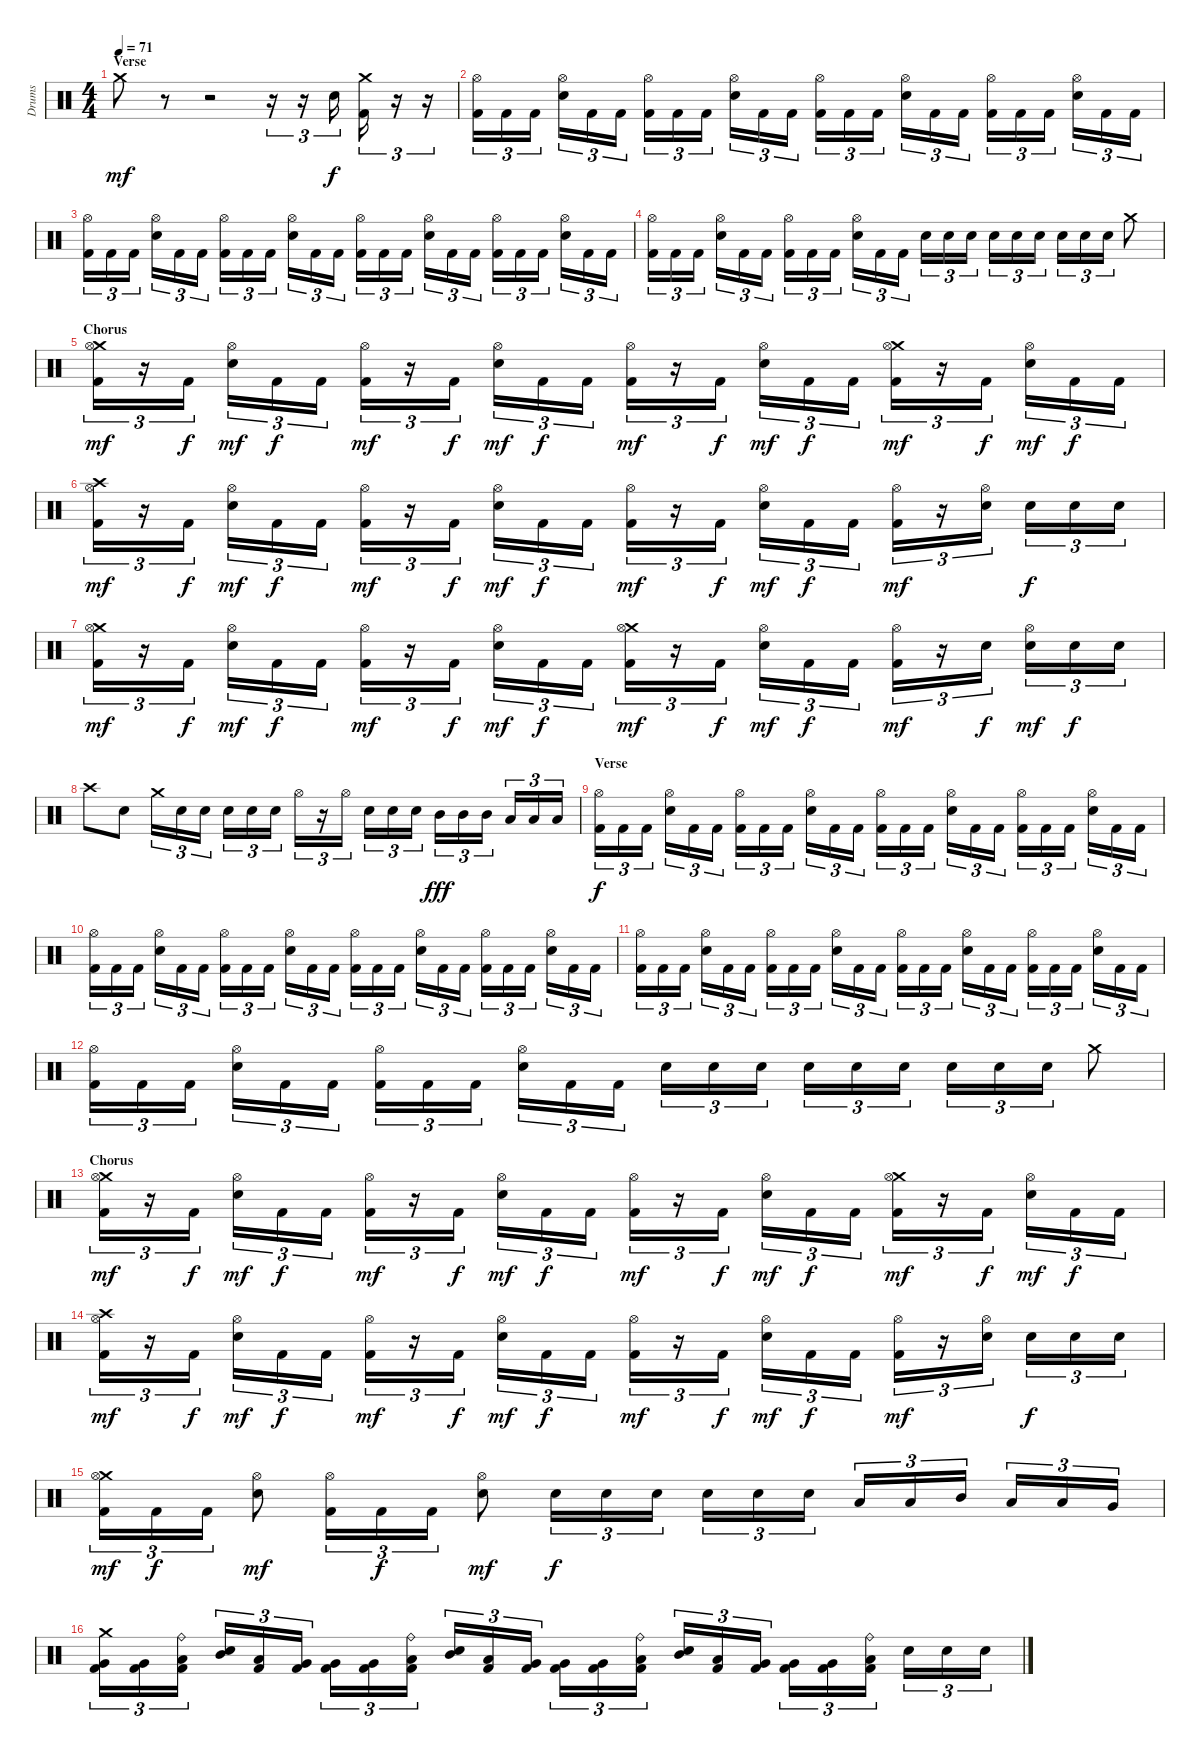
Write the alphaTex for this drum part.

\track ("Drums" "Drums") {instrument percussion}
\staff {score}
\articulation defaults
\ts (4 4)
\section ("" "Verse")
\tempo 71
\clef neutral
\ks c "Crash medium (hit)".8{dy mf}
r.8 r.2 r.16{tu (3 2)} r.16{tu (3 2)} "Electric Snare (hit)".16{tu (3 2) dy f} ("Crash medium (hit)" "Kick (hit) 2").16{tu (3 2)} r.16{tu (3 2)} r.16{tu (3 2)} |
("Hi-Hat (open)" "Kick (hit) 2").16{tu (3 2)} "Kick (hit) 2".16{tu (3 2)} "Kick (hit) 2".16{tu (3 2)} ("Hi-Hat (open)" "Electric Snare (hit)").16{tu (3 2)} "Kick (hit) 2".16{tu (3 2)} "Kick (hit) 2".16{tu (3 2)} ("Hi-Hat (open)" "Kick (hit) 2").16{tu (3 2)} "Kick (hit) 2".16{tu (3 2)} "Kick (hit) 2".16{tu (3 2)} ("Hi-Hat (open)" "Electric Snare (hit)").16{tu (3 2)} "Kick (hit) 2".16{tu (3 2)} "Kick (hit) 2".16{tu (3 2)} ("Hi-Hat (open)" "Kick (hit) 2").16{tu (3 2)} "Kick (hit) 2".16{tu (3 2)} "Kick (hit) 2".16{tu (3 2)} ("Hi-Hat (open)" "Electric Snare (hit)").16{tu (3 2)} "Kick (hit) 2".16{tu (3 2)} "Kick (hit) 2".16{tu (3 2)} ("Hi-Hat (open)" "Kick (hit) 2").16{tu (3 2)} "Kick (hit) 2".16{tu (3 2)} "Kick (hit) 2".16{tu (3 2)} ("Hi-Hat (open)" "Electric Snare (hit)").16{tu (3 2)} "Kick (hit) 2".16{tu (3 2)} "Kick (hit) 2".16{tu (3 2)} |
("Hi-Hat (open)" "Kick (hit) 2").16{tu (3 2)} "Kick (hit) 2".16{tu (3 2)} "Kick (hit) 2".16{tu (3 2)} ("Hi-Hat (open)" "Electric Snare (hit)").16{tu (3 2)} "Kick (hit) 2".16{tu (3 2)} "Kick (hit) 2".16{tu (3 2)} ("Hi-Hat (open)" "Kick (hit) 2").16{tu (3 2)} "Kick (hit) 2".16{tu (3 2)} "Kick (hit) 2".16{tu (3 2)} ("Hi-Hat (open)" "Electric Snare (hit)").16{tu (3 2)} "Kick (hit) 2".16{tu (3 2)} "Kick (hit) 2".16{tu (3 2)} ("Hi-Hat (open)" "Kick (hit) 2").16{tu (3 2)} "Kick (hit) 2".16{tu (3 2)} "Kick (hit) 2".16{tu (3 2)} ("Hi-Hat (open)" "Electric Snare (hit)").16{tu (3 2)} "Kick (hit) 2".16{tu (3 2)} "Kick (hit) 2".16{tu (3 2)} ("Hi-Hat (open)" "Kick (hit) 2").16{tu (3 2)} "Kick (hit) 2".16{tu (3 2)} "Kick (hit) 2".16{tu (3 2)} ("Hi-Hat (open)" "Electric Snare (hit)").16{tu (3 2)} "Kick (hit) 2".16{tu (3 2)} "Kick (hit) 2".16{tu (3 2)} |
("Hi-Hat (open)" "Kick (hit) 2").16{tu (3 2)} "Kick (hit) 2".16{tu (3 2)} "Kick (hit) 2".16{tu (3 2)} ("Hi-Hat (open)" "Electric Snare (hit)").16{tu (3 2)} "Kick (hit) 2".16{tu (3 2)} "Kick (hit) 2".16{tu (3 2)} ("Hi-Hat (open)" "Kick (hit) 2").16{tu (3 2)} "Kick (hit) 2".16{tu (3 2)} "Kick (hit) 2".16{tu (3 2)} ("Hi-Hat (open)" "Electric Snare (hit)").16{tu (3 2)} "Kick (hit) 2".16{tu (3 2)} "Kick (hit) 2".16{tu (3 2)} "Electric Snare (hit)".16{tu (3 2)} "Electric Snare (hit)".16{tu (3 2)} "Electric Snare (hit)".16{tu (3 2)} "Electric Snare (hit)".16{tu (3 2)} "Electric Snare (hit)".16{tu (3 2)} "Electric Snare (hit)".16{tu (3 2)} "Electric Snare (hit)".16{tu (3 2)} "Electric Snare (hit)".16{tu (3 2)} "Electric Snare (hit)".16{tu (3 2)} "Crash medium (hit)".8 |
\section ("" "Chorus")
("Crash medium (hit)" "Hi-Hat (open)" "Kick (hit) 2").16{tu (3 2) dy mf} r.16{tu (3 2)} "Kick (hit) 2".16{tu (3 2) dy f} ("Hi-Hat (open)" "Electric Snare (hit)").16{tu (3 2) dy mf} "Kick (hit) 2".16{tu (3 2) dy f} "Kick (hit) 2".16{tu (3 2)} ("Hi-Hat (open)" "Kick (hit) 2").16{tu (3 2) dy mf} r.16{tu (3 2)} "Kick (hit) 2".16{tu (3 2) dy f} ("Hi-Hat (open)" "Electric Snare (hit)").16{tu (3 2) dy mf} "Kick (hit) 2".16{tu (3 2) dy f} "Kick (hit) 2".16{tu (3 2)} ("Hi-Hat (open)" "Kick (hit) 2").16{tu (3 2) dy mf} r.16{tu (3 2)} "Kick (hit) 2".16{tu (3 2) dy f} ("Hi-Hat (open)" "Electric Snare (hit)").16{tu (3 2) dy mf} "Kick (hit) 2".16{tu (3 2) dy f} "Kick (hit) 2".16{tu (3 2)} ("Crash medium (hit)" "Hi-Hat (open)" "Kick (hit) 2").16{tu (3 2) dy mf} r.16{tu (3 2)} "Kick (hit) 2".16{tu (3 2) dy f} ("Hi-Hat (open)" "Electric Snare (hit)").16{tu (3 2) dy mf} "Kick (hit) 2".16{tu (3 2) dy f} "Kick (hit) 2".16{tu (3 2)} |
("Crash high (hit)" "Hi-Hat (open)" "Kick (hit) 2").16{tu (3 2) dy mf} r.16{tu (3 2)} "Kick (hit) 2".16{tu (3 2) dy f} ("Hi-Hat (open)" "Electric Snare (hit)").16{tu (3 2) dy mf} "Kick (hit) 2".16{tu (3 2) dy f} "Kick (hit) 2".16{tu (3 2)} ("Hi-Hat (open)" "Kick (hit) 2").16{tu (3 2) dy mf} r.16{tu (3 2)} "Kick (hit) 2".16{tu (3 2) dy f} ("Hi-Hat (open)" "Electric Snare (hit)").16{tu (3 2) dy mf} "Kick (hit) 2".16{tu (3 2) dy f} "Kick (hit) 2".16{tu (3 2)} ("Hi-Hat (open)" "Kick (hit) 2").16{tu (3 2) dy mf} r.16{tu (3 2)} "Kick (hit) 2".16{tu (3 2) dy f} ("Hi-Hat (open)" "Electric Snare (hit)").16{tu (3 2) dy mf} "Kick (hit) 2".16{tu (3 2) dy f} "Kick (hit) 2".16{tu (3 2)} ("Hi-Hat (open)" "Kick (hit) 2").16{tu (3 2) dy mf} r.16{tu (3 2)} ("Hi-Hat (open)" "Electric Snare (hit)").16{tu (3 2)} "Electric Snare (hit)".16{tu (3 2) dy f} "Electric Snare (hit)".16{tu (3 2)} "Electric Snare (hit)".16{tu (3 2)} |
("Crash medium (hit)" "Hi-Hat (open)" "Kick (hit) 2").16{tu (3 2) dy mf} r.16{tu (3 2)} "Kick (hit) 2".16{tu (3 2) dy f} ("Hi-Hat (open)" "Electric Snare (hit)").16{tu (3 2) dy mf} "Kick (hit) 2".16{tu (3 2) dy f} "Kick (hit) 2".16{tu (3 2)} ("Hi-Hat (open)" "Kick (hit) 2").16{tu (3 2) dy mf} r.16{tu (3 2)} "Kick (hit) 2".16{tu (3 2) dy f} ("Hi-Hat (open)" "Electric Snare (hit)").16{tu (3 2) dy mf} "Kick (hit) 2".16{tu (3 2) dy f} "Kick (hit) 2".16{tu (3 2)} ("Crash medium (hit)" "Hi-Hat (open)" "Kick (hit) 2").16{tu (3 2) dy mf} r.16{tu (3 2)} "Kick (hit) 2".16{tu (3 2) dy f} ("Hi-Hat (open)" "Electric Snare (hit)").16{tu (3 2) dy mf} "Kick (hit) 2".16{tu (3 2) dy f} "Kick (hit) 2".16{tu (3 2)} ("Hi-Hat (open)" "Kick (hit) 2").16{tu (3 2) dy mf} r.16{tu (3 2)} "Electric Snare (hit)".16{tu (3 2) dy f} ("Hi-Hat (open)" "Electric Snare (hit)").16{tu (3 2) dy mf} "Electric Snare (hit)".16{tu (3 2) dy f} "Electric Snare (hit)".16{tu (3 2)} |
"Crash high (hit)".8 "Electric Snare (hit)".8 "Crash medium (hit)".16{tu (3 2)} "Electric Snare (hit)".16{tu (3 2)} "Electric Snare (hit)".16{tu (3 2)} "Electric Snare (hit)".16{tu (3 2)} "Electric Snare (hit)".16{tu (3 2)} "Electric Snare (hit)".16{tu (3 2)} "Hi-Hat (open)".16{tu (3 2)} r.16{tu (3 2)} "Hi-Hat (open)".16{tu (3 2)} "Electric Snare (hit)".16{tu (3 2)} "Electric Snare (hit)".16{tu (3 2)} "Electric Snare (hit)".16{tu (3 2)} "Mid Tom (hit)".16{tu (3 2) dy fff} "Mid Tom (hit)".16{tu (3 2)} "Mid Tom (hit)".16{tu (3 2)} "Low Tom (hit)".16{tu (3 2)} "Low Tom (hit)".16{tu (3 2)} "Low Tom (hit)".16{tu (3 2)} |
\section ("" "Verse")
("Hi-Hat (open)" "Kick (hit) 2").16{tu (3 2) dy f} "Kick (hit) 2".16{tu (3 2)} "Kick (hit) 2".16{tu (3 2)} ("Hi-Hat (open)" "Electric Snare (hit)").16{tu (3 2)} "Kick (hit) 2".16{tu (3 2)} "Kick (hit) 2".16{tu (3 2)} ("Hi-Hat (open)" "Kick (hit) 2").16{tu (3 2)} "Kick (hit) 2".16{tu (3 2)} "Kick (hit) 2".16{tu (3 2)} ("Hi-Hat (open)" "Electric Snare (hit)").16{tu (3 2)} "Kick (hit) 2".16{tu (3 2)} "Kick (hit) 2".16{tu (3 2)} ("Hi-Hat (open)" "Kick (hit) 2").16{tu (3 2)} "Kick (hit) 2".16{tu (3 2)} "Kick (hit) 2".16{tu (3 2)} ("Hi-Hat (open)" "Electric Snare (hit)").16{tu (3 2)} "Kick (hit) 2".16{tu (3 2)} "Kick (hit) 2".16{tu (3 2)} ("Hi-Hat (open)" "Kick (hit) 2").16{tu (3 2)} "Kick (hit) 2".16{tu (3 2)} "Kick (hit) 2".16{tu (3 2)} ("Hi-Hat (open)" "Electric Snare (hit)").16{tu (3 2)} "Kick (hit) 2".16{tu (3 2)} "Kick (hit) 2".16{tu (3 2)} |
("Hi-Hat (open)" "Kick (hit) 2").16{tu (3 2)} "Kick (hit) 2".16{tu (3 2)} "Kick (hit) 2".16{tu (3 2)} ("Hi-Hat (open)" "Electric Snare (hit)").16{tu (3 2)} "Kick (hit) 2".16{tu (3 2)} "Kick (hit) 2".16{tu (3 2)} ("Hi-Hat (open)" "Kick (hit) 2").16{tu (3 2)} "Kick (hit) 2".16{tu (3 2)} "Kick (hit) 2".16{tu (3 2)} ("Hi-Hat (open)" "Electric Snare (hit)").16{tu (3 2)} "Kick (hit) 2".16{tu (3 2)} "Kick (hit) 2".16{tu (3 2)} ("Hi-Hat (open)" "Kick (hit) 2").16{tu (3 2)} "Kick (hit) 2".16{tu (3 2)} "Kick (hit) 2".16{tu (3 2)} ("Hi-Hat (open)" "Electric Snare (hit)").16{tu (3 2)} "Kick (hit) 2".16{tu (3 2)} "Kick (hit) 2".16{tu (3 2)} ("Hi-Hat (open)" "Kick (hit) 2").16{tu (3 2)} "Kick (hit) 2".16{tu (3 2)} "Kick (hit) 2".16{tu (3 2)} ("Hi-Hat (open)" "Electric Snare (hit)").16{tu (3 2)} "Kick (hit) 2".16{tu (3 2)} "Kick (hit) 2".16{tu (3 2)} |
("Hi-Hat (open)" "Kick (hit) 2").16{tu (3 2)} "Kick (hit) 2".16{tu (3 2)} "Kick (hit) 2".16{tu (3 2)} ("Hi-Hat (open)" "Electric Snare (hit)").16{tu (3 2)} "Kick (hit) 2".16{tu (3 2)} "Kick (hit) 2".16{tu (3 2)} ("Hi-Hat (open)" "Kick (hit) 2").16{tu (3 2)} "Kick (hit) 2".16{tu (3 2)} "Kick (hit) 2".16{tu (3 2)} ("Hi-Hat (open)" "Electric Snare (hit)").16{tu (3 2)} "Kick (hit) 2".16{tu (3 2)} "Kick (hit) 2".16{tu (3 2)} ("Hi-Hat (open)" "Kick (hit) 2").16{tu (3 2)} "Kick (hit) 2".16{tu (3 2)} "Kick (hit) 2".16{tu (3 2)} ("Hi-Hat (open)" "Electric Snare (hit)").16{tu (3 2)} "Kick (hit) 2".16{tu (3 2)} "Kick (hit) 2".16{tu (3 2)} ("Hi-Hat (open)" "Kick (hit) 2").16{tu (3 2)} "Kick (hit) 2".16{tu (3 2)} "Kick (hit) 2".16{tu (3 2)} ("Hi-Hat (open)" "Electric Snare (hit)").16{tu (3 2)} "Kick (hit) 2".16{tu (3 2)} "Kick (hit) 2".16{tu (3 2)} |
("Hi-Hat (open)" "Kick (hit) 2").16{tu (3 2)} "Kick (hit) 2".16{tu (3 2)} "Kick (hit) 2".16{tu (3 2)} ("Hi-Hat (open)" "Electric Snare (hit)").16{tu (3 2)} "Kick (hit) 2".16{tu (3 2)} "Kick (hit) 2".16{tu (3 2)} ("Hi-Hat (open)" "Kick (hit) 2").16{tu (3 2)} "Kick (hit) 2".16{tu (3 2)} "Kick (hit) 2".16{tu (3 2)} ("Hi-Hat (open)" "Electric Snare (hit)").16{tu (3 2)} "Kick (hit) 2".16{tu (3 2)} "Kick (hit) 2".16{tu (3 2)} "Electric Snare (hit)".16{tu (3 2)} "Electric Snare (hit)".16{tu (3 2)} "Electric Snare (hit)".16{tu (3 2)} "Electric Snare (hit)".16{tu (3 2)} "Electric Snare (hit)".16{tu (3 2)} "Electric Snare (hit)".16{tu (3 2)} "Electric Snare (hit)".16{tu (3 2)} "Electric Snare (hit)".16{tu (3 2)} "Electric Snare (hit)".16{tu (3 2)} "Crash medium (hit)".8 |
\section ("" "Chorus")
("Crash medium (hit)" "Hi-Hat (open)" "Kick (hit) 2").16{tu (3 2) dy mf} r.16{tu (3 2)} "Kick (hit) 2".16{tu (3 2) dy f} ("Hi-Hat (open)" "Electric Snare (hit)").16{tu (3 2) dy mf} "Kick (hit) 2".16{tu (3 2) dy f} "Kick (hit) 2".16{tu (3 2)} ("Hi-Hat (open)" "Kick (hit) 2").16{tu (3 2) dy mf} r.16{tu (3 2)} "Kick (hit) 2".16{tu (3 2) dy f} ("Hi-Hat (open)" "Electric Snare (hit)").16{tu (3 2) dy mf} "Kick (hit) 2".16{tu (3 2) dy f} "Kick (hit) 2".16{tu (3 2)} ("Hi-Hat (open)" "Kick (hit) 2").16{tu (3 2) dy mf} r.16{tu (3 2)} "Kick (hit) 2".16{tu (3 2) dy f} ("Hi-Hat (open)" "Electric Snare (hit)").16{tu (3 2) dy mf} "Kick (hit) 2".16{tu (3 2) dy f} "Kick (hit) 2".16{tu (3 2)} ("Crash medium (hit)" "Hi-Hat (open)" "Kick (hit) 2").16{tu (3 2) dy mf} r.16{tu (3 2)} "Kick (hit) 2".16{tu (3 2) dy f} ("Hi-Hat (open)" "Electric Snare (hit)").16{tu (3 2) dy mf} "Kick (hit) 2".16{tu (3 2) dy f} "Kick (hit) 2".16{tu (3 2)} |
("Crash high (hit)" "Hi-Hat (open)" "Kick (hit) 2").16{tu (3 2) dy mf} r.16{tu (3 2)} "Kick (hit) 2".16{tu (3 2) dy f} ("Hi-Hat (open)" "Electric Snare (hit)").16{tu (3 2) dy mf} "Kick (hit) 2".16{tu (3 2) dy f} "Kick (hit) 2".16{tu (3 2)} ("Hi-Hat (open)" "Kick (hit) 2").16{tu (3 2) dy mf} r.16{tu (3 2)} "Kick (hit) 2".16{tu (3 2) dy f} ("Hi-Hat (open)" "Electric Snare (hit)").16{tu (3 2) dy mf} "Kick (hit) 2".16{tu (3 2) dy f} "Kick (hit) 2".16{tu (3 2)} ("Hi-Hat (open)" "Kick (hit) 2").16{tu (3 2) dy mf} r.16{tu (3 2)} "Kick (hit) 2".16{tu (3 2) dy f} ("Hi-Hat (open)" "Electric Snare (hit)").16{tu (3 2) dy mf} "Kick (hit) 2".16{tu (3 2) dy f} "Kick (hit) 2".16{tu (3 2)} ("Hi-Hat (open)" "Kick (hit) 2").16{tu (3 2) dy mf} r.16{tu (3 2)} ("Hi-Hat (open)" "Electric Snare (hit)").16{tu (3 2)} "Electric Snare (hit)".16{tu (3 2) dy f} "Electric Snare (hit)".16{tu (3 2)} "Electric Snare (hit)".16{tu (3 2)} |
("Crash medium (hit)" "Hi-Hat (open)" "Kick (hit) 2").16{tu (3 2) dy mf} "Kick (hit) 2".16{tu (3 2) dy f} "Kick (hit) 2".16{tu (3 2)} ("Hi-Hat (open)" "Electric Snare (hit)").8{dy mf} ("Hi-Hat (open)" "Kick (hit) 2").16{tu (3 2)} "Kick (hit) 2".16{tu (3 2) dy f} "Kick (hit) 2".16{tu (3 2)} ("Hi-Hat (open)" "Electric Snare (hit)").8{dy mf} "Electric Snare (hit)".16{tu (3 2) dy f} "Electric Snare (hit)".16{tu (3 2)} "Electric Snare (hit)".16{tu (3 2)} "Electric Snare (hit)".16{tu (3 2)} "Electric Snare (hit)".16{tu (3 2)} "Electric Snare (hit)".16{tu (3 2)} "Low Tom (hit)".16{tu (3 2)} "Low Tom (hit)".16{tu (3 2)} "Mid Tom (hit)".16{tu (3 2)} "Low Tom (hit)".16{tu (3 2)} "Low Tom (hit)".16{tu (3 2)} "Very Low Tom (hit)".16{tu (3 2)} |
("Crash medium (hit)" "Very Low Tom (hit)" "Kick (hit) 2").16{tu (3 2)} ("Very Low Tom (hit)" "Kick (hit) 2").16{tu (3 2)} ("Ride (bell)" "Low Tom (hit)" "Kick (hit) 2").16{tu (3 2)} ("Mid Tom (hit)" "Electric Snare (hit)").16{tu (3 2)} ("Low Tom (hit)" "Kick (hit) 2").16{tu (3 2)} ("Very Low Tom (hit)" "Kick (hit) 2").16{tu (3 2)} ("Very Low Tom (hit)" "Kick (hit) 2").16{tu (3 2)} ("Very Low Tom (hit)" "Kick (hit) 2").16{tu (3 2)} ("Ride (bell)" "Low Tom (hit)" "Kick (hit) 2").16{tu (3 2)} ("Mid Tom (hit)" "Electric Snare (hit)").16{tu (3 2)} ("Low Tom (hit)" "Kick (hit) 2").16{tu (3 2)} ("Very Low Tom (hit)" "Kick (hit) 2").16{tu (3 2)} ("Very Low Tom (hit)" "Kick (hit) 2").16{tu (3 2)} ("Very Low Tom (hit)" "Kick (hit) 2").16{tu (3 2)} ("Ride (bell)" "Low Tom (hit)" "Kick (hit) 2").16{tu (3 2)} ("Mid Tom (hit)" "Electric Snare (hit)").16{tu (3 2)} ("Low Tom (hit)" "Kick (hit) 2").16{tu (3 2)} ("Very Low Tom (hit)" "Kick (hit) 2").16{tu (3 2)} ("Very Low Tom (hit)" "Kick (hit) 2").16{tu (3 2)} ("Very Low Tom (hit)" "Kick (hit) 2").16{tu (3 2)} ("Ride (bell)" "Low Tom (hit)" "Kick (hit) 2").16{tu (3 2)} "Electric Snare (hit)".16{tu (3 2)} "Electric Snare (hit)".16{tu (3 2)} "Electric Snare (hit)".16{tu (3 2)}
